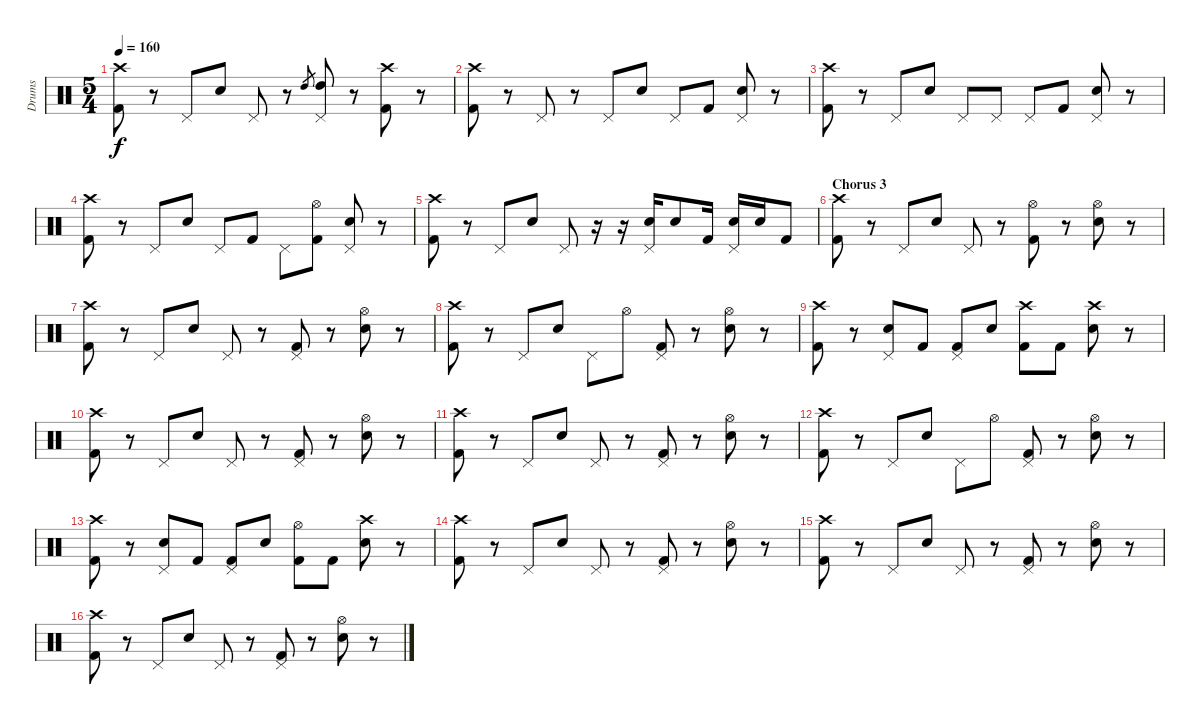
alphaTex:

\track ("Drums" "Drums") {instrument percussion}
\staff {score}
\articulation defaults
\ts (5 4)
\tempo 160
\clef neutral
\ks c
("Crash high (hit)" "Kick (hit) 2").8{dy f} r.8 "Pedal Hi-Hat (hit)".8 "Electric Snare (hit)".8 "Pedal Hi-Hat (hit)".8 r.8 "High Tom (hit)".8{gr} ("Pedal Hi-Hat (hit)" "High Tom (hit)").8 r.8 ("Crash high (hit)" "Kick (hit) 2").8 r.8 |
("Crash high (hit)" "Kick (hit) 2").8 r.8 "Pedal Hi-Hat (hit)".8 r.8 "Pedal Hi-Hat (hit)".8 "Electric Snare (hit)".8 "Pedal Hi-Hat (hit)".8 "Kick (hit) 2".8 ("Pedal Hi-Hat (hit)" "Electric Snare (hit)").8 r.8 |
("Crash high (hit)" "Kick (hit) 2").8 r.8 "Pedal Hi-Hat (hit)".8 "Electric Snare (hit)".8 "Pedal Hi-Hat (hit)".8 "Pedal Hi-Hat (hit)".8 "Pedal Hi-Hat (hit)".8 "Kick (hit) 2".8 ("Pedal Hi-Hat (hit)" "Electric Snare (hit)").8 r.8 |
("Crash high (hit)" "Kick (hit) 2").8 r.8 "Pedal Hi-Hat (hit)".8 "Electric Snare (hit)".8 "Pedal Hi-Hat (hit)".8 "Kick (hit) 2".8 "Pedal Hi-Hat (hit)".8 ("Hi-Hat (open)" "Kick (hit) 2").8 ("Pedal Hi-Hat (hit)" "Electric Snare (hit)").8 r.8 |
("Crash high (hit)" "Kick (hit) 2").8 r.8 "Pedal Hi-Hat (hit)".8 "Electric Snare (hit)".8 "Pedal Hi-Hat (hit)".8 r.16 r.16 ("Pedal Hi-Hat (hit)" "Electric Snare (hit)").16 "Electric Snare (hit)".8 "Kick (hit) 2".16 ("Pedal Hi-Hat (hit)" "Electric Snare (hit)").16 "Electric Snare (hit)".16 "Kick (hit) 2".8 |
\section ("" "Chorus 3")
("Crash high (hit)" "Kick (hit) 2").8 r.8 "Pedal Hi-Hat (hit)".8 "Electric Snare (hit)".8 "Pedal Hi-Hat (hit)".8 r.8 ("Hi-Hat (open)" "Kick (hit) 2").8 r.8 ("Hi-Hat (open)" "Electric Snare (hit)").8 r.8 |
("Crash high (hit)" "Kick (hit) 2").8 r.8 "Pedal Hi-Hat (hit)".8 "Electric Snare (hit)".8 "Pedal Hi-Hat (hit)".8 r.8 ("Pedal Hi-Hat (hit)" "Kick (hit) 2").8 r.8 ("Hi-Hat (open)" "Electric Snare (hit)").8 r.8 |
("Crash high (hit)" "Kick (hit) 2").8 r.8 "Pedal Hi-Hat (hit)".8 "Electric Snare (hit)".8 "Pedal Hi-Hat (hit)".8 "Hi-Hat (open)".8 ("Pedal Hi-Hat (hit)" "Kick (hit) 2").8 r.8 ("Hi-Hat (open)" "Electric Snare (hit)").8 r.8 |
("Crash high (hit)" "Kick (hit) 2").8 r.8 ("Pedal Hi-Hat (hit)" "Electric Snare (hit)").8 "Kick (hit) 2".8 ("Pedal Hi-Hat (hit)" "Kick (hit) 2").8 "Electric Snare (hit)".8 ("Crash high (hit)" "Kick (hit) 2").8 "Kick (hit) 2".8 ("Crash high (hit)" "Electric Snare (hit)").8 r.8 |
("Crash high (hit)" "Kick (hit) 2").8 r.8 "Pedal Hi-Hat (hit)".8 "Electric Snare (hit)".8 "Pedal Hi-Hat (hit)".8 r.8 ("Pedal Hi-Hat (hit)" "Kick (hit) 2").8 r.8 ("Hi-Hat (open)" "Electric Snare (hit)").8 r.8 |
("Crash high (hit)" "Kick (hit) 2").8 r.8 "Pedal Hi-Hat (hit)".8 "Electric Snare (hit)".8 "Pedal Hi-Hat (hit)".8 r.8 ("Pedal Hi-Hat (hit)" "Kick (hit) 2").8 r.8 ("Hi-Hat (open)" "Electric Snare (hit)").8 r.8 |
("Crash high (hit)" "Kick (hit) 2").8 r.8 "Pedal Hi-Hat (hit)".8 "Electric Snare (hit)".8 "Pedal Hi-Hat (hit)".8 "Hi-Hat (open)".8 ("Pedal Hi-Hat (hit)" "Kick (hit) 2").8 r.8 ("Hi-Hat (open)" "Electric Snare (hit)").8 r.8 |
("Crash high (hit)" "Kick (hit) 2").8 r.8 ("Pedal Hi-Hat (hit)" "Electric Snare (hit)").8 "Kick (hit) 2".8 ("Pedal Hi-Hat (hit)" "Kick (hit) 2").8 "Electric Snare (hit)".8 ("Hi-Hat (open)" "Kick (hit) 2").8 "Kick (hit) 2".8 ("Crash high (hit)" "Electric Snare (hit)").8 r.8 |
("Crash high (hit)" "Kick (hit) 2").8 r.8 "Pedal Hi-Hat (hit)".8 "Electric Snare (hit)".8 "Pedal Hi-Hat (hit)".8 r.8 ("Pedal Hi-Hat (hit)" "Kick (hit) 2").8 r.8 ("Hi-Hat (open)" "Electric Snare (hit)").8 r.8 |
("Crash high (hit)" "Kick (hit) 2").8 r.8 "Pedal Hi-Hat (hit)".8 "Electric Snare (hit)".8 "Pedal Hi-Hat (hit)".8 r.8 ("Pedal Hi-Hat (hit)" "Kick (hit) 2").8 r.8 ("Hi-Hat (open)" "Electric Snare (hit)").8 r.8 |
("Crash high (hit)" "Kick (hit) 2").8 r.8 "Pedal Hi-Hat (hit)".8 "Electric Snare (hit)".8 "Pedal Hi-Hat (hit)".8 r.8 ("Pedal Hi-Hat (hit)" "Kick (hit) 2").8 r.8 ("Hi-Hat (open)" "Electric Snare (hit)").8 r.8
